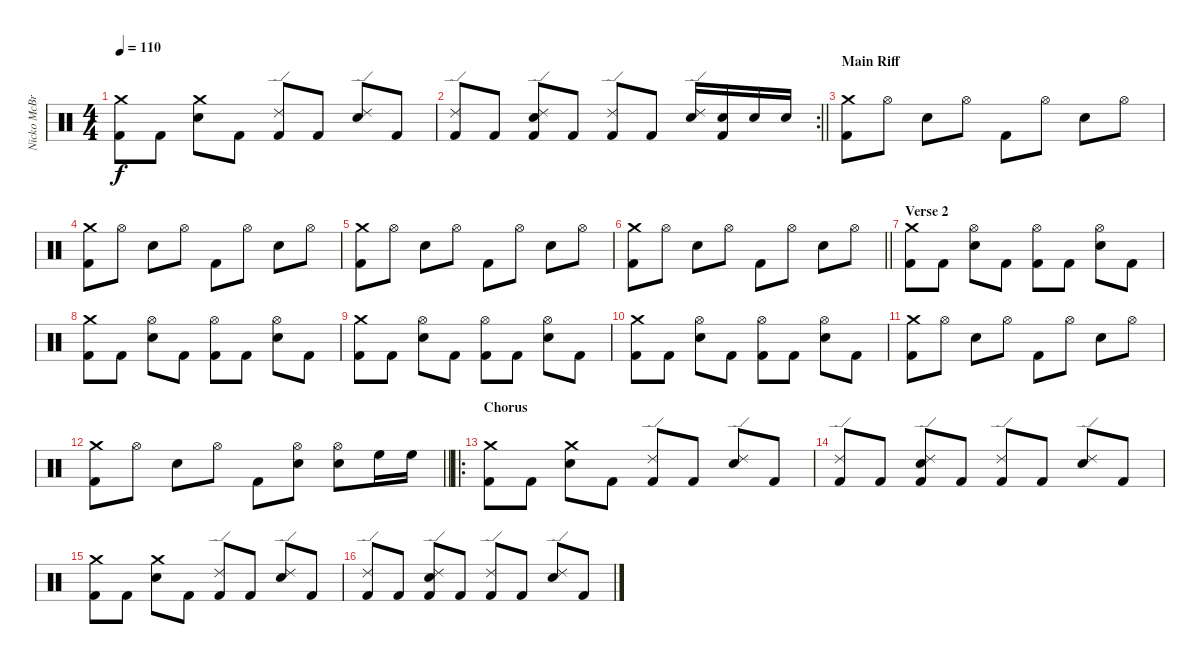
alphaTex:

\track ("Nicko McBrain" "Nicko McBr") {instrument percussion}
\staff {score}
\articulation defaults
\ts (4 4)
\tempo 110
\clef neutral
\ks c
("Crash medium (hit)" "Kick (hit) 2").8{dy f} "Kick (hit) 2".8 ("Snare (hit) 2" "Crash medium (hit)").8 "Kick (hit) 2".8 ("Ride (edge) 2" "Kick (hit) 2").8 "Kick (hit) 2".8 ("Snare (hit) 2" "Ride (edge) 2").8 "Kick (hit) 2".8 |
\rc 2
\barLineRight lightlight
("Ride (edge) 2" "Kick (hit) 2").8 "Kick (hit) 2".8 ("Snare (hit) 2" "Ride (edge) 2" "Kick (hit) 2").8 "Kick (hit) 2".8 ("Ride (edge) 2" "Kick (hit) 2").8 "Kick (hit) 2".8 ("Snare (hit) 2" "Ride (edge) 2").16 ("Snare (hit) 2" "Kick (hit) 2").16 "Snare (hit) 2".16 "Snare (hit) 2".16 |
\section ("" "Main Riff")
("Crash medium (hit)" "Kick (hit) 2").8 "Hi-Hat (open)".8 "Snare (hit) 2".8 "Hi-Hat (open)".8 "Kick (hit) 2".8 "Hi-Hat (open)".8 "Snare (hit) 2".8 "Hi-Hat (open)".8 |
("Crash medium (hit)" "Kick (hit) 2").8 "Hi-Hat (open)".8 "Snare (hit) 2".8 "Hi-Hat (open)".8 "Kick (hit) 2".8 "Hi-Hat (open)".8 "Snare (hit) 2".8 "Hi-Hat (open)".8 |
("Crash medium (hit)" "Kick (hit) 2").8 "Hi-Hat (open)".8 "Snare (hit) 2".8 "Hi-Hat (open)".8 "Kick (hit) 2".8 "Hi-Hat (open)".8 "Snare (hit) 2".8 "Hi-Hat (open)".8 |
\barLineRight lightlight
("Crash medium (hit)" "Kick (hit) 2").8 "Hi-Hat (open)".8 "Snare (hit) 2".8 "Hi-Hat (open)".8 "Kick (hit) 2".8 "Hi-Hat (open)".8 "Snare (hit) 2".8 "Hi-Hat (open)".8 |
\section ("" "Verse 2")
("Crash medium (hit)" "Kick (hit) 2").8 "Kick (hit) 2".8 ("Snare (hit) 2" "Hi-Hat (open)").8 "Kick (hit) 2".8 ("Hi-Hat (open)" "Kick (hit) 2").8 "Kick (hit) 2".8 ("Snare (hit) 2" "Hi-Hat (open)").8 "Kick (hit) 2".8 |
("Crash medium (hit)" "Kick (hit) 2").8 "Kick (hit) 2".8 ("Snare (hit) 2" "Hi-Hat (open)").8 "Kick (hit) 2".8 ("Hi-Hat (open)" "Kick (hit) 2").8 "Kick (hit) 2".8 ("Snare (hit) 2" "Hi-Hat (open)").8 "Kick (hit) 2".8 |
("Crash medium (hit)" "Kick (hit) 2").8 "Kick (hit) 2".8 ("Snare (hit) 2" "Hi-Hat (open)").8 "Kick (hit) 2".8 ("Hi-Hat (open)" "Kick (hit) 2").8 "Kick (hit) 2".8 ("Snare (hit) 2" "Hi-Hat (open)").8 "Kick (hit) 2".8 |
("Crash medium (hit)" "Kick (hit) 2").8 "Kick (hit) 2".8 ("Snare (hit) 2" "Hi-Hat (open)").8 "Kick (hit) 2".8 ("Hi-Hat (open)" "Kick (hit) 2").8 "Kick (hit) 2".8 ("Snare (hit) 2" "Hi-Hat (open)").8 "Kick (hit) 2".8 |
("Crash medium (hit)" "Kick (hit) 2").8 "Hi-Hat (open)".8 "Snare (hit) 2".8 "Hi-Hat (open)".8 "Kick (hit) 2".8 "Hi-Hat (open)".8 "Snare (hit) 2".8 "Hi-Hat (open)".8 |
\barLineRight lightlight
("Crash medium (hit)" "Kick (hit) 2").8 "Hi-Hat (open)".8 "Snare (hit) 2".8 "Hi-Hat (open)".8 "Kick (hit) 2".8 ("Snare (hit) 2" "Hi-Hat (open)").8 ("Snare (hit) 2" "Hi-Hat (open)").8 "High Floor Tom (hit)".16 "High Floor Tom (hit)".16 |
\ro
\section ("" "Chorus")
("Crash medium (hit)" "Kick (hit) 2").8 "Kick (hit) 2".8 ("Snare (hit) 2" "Crash medium (hit)").8 "Kick (hit) 2".8 ("Ride (edge) 2" "Kick (hit) 2").8 "Kick (hit) 2".8 ("Snare (hit) 2" "Ride (edge) 2").8 "Kick (hit) 2".8 |
("Ride (edge) 2" "Kick (hit) 2").8 "Kick (hit) 2".8 ("Snare (hit) 2" "Ride (edge) 2" "Kick (hit) 2").8 "Kick (hit) 2".8 ("Ride (edge) 2" "Kick (hit) 2").8 "Kick (hit) 2".8 ("Snare (hit) 2" "Ride (edge) 2").8 "Kick (hit) 2".8 |
("Crash medium (hit)" "Kick (hit) 2").8 "Kick (hit) 2".8 ("Snare (hit) 2" "Crash medium (hit)").8 "Kick (hit) 2".8 ("Ride (edge) 2" "Kick (hit) 2").8 "Kick (hit) 2".8 ("Snare (hit) 2" "Ride (edge) 2").8 "Kick (hit) 2".8 |
("Ride (edge) 2" "Kick (hit) 2").8 "Kick (hit) 2".8 ("Snare (hit) 2" "Ride (edge) 2" "Kick (hit) 2").8 "Kick (hit) 2".8 ("Ride (edge) 2" "Kick (hit) 2").8 "Kick (hit) 2".8 ("Snare (hit) 2" "Ride (edge) 2").8 "Kick (hit) 2".8
